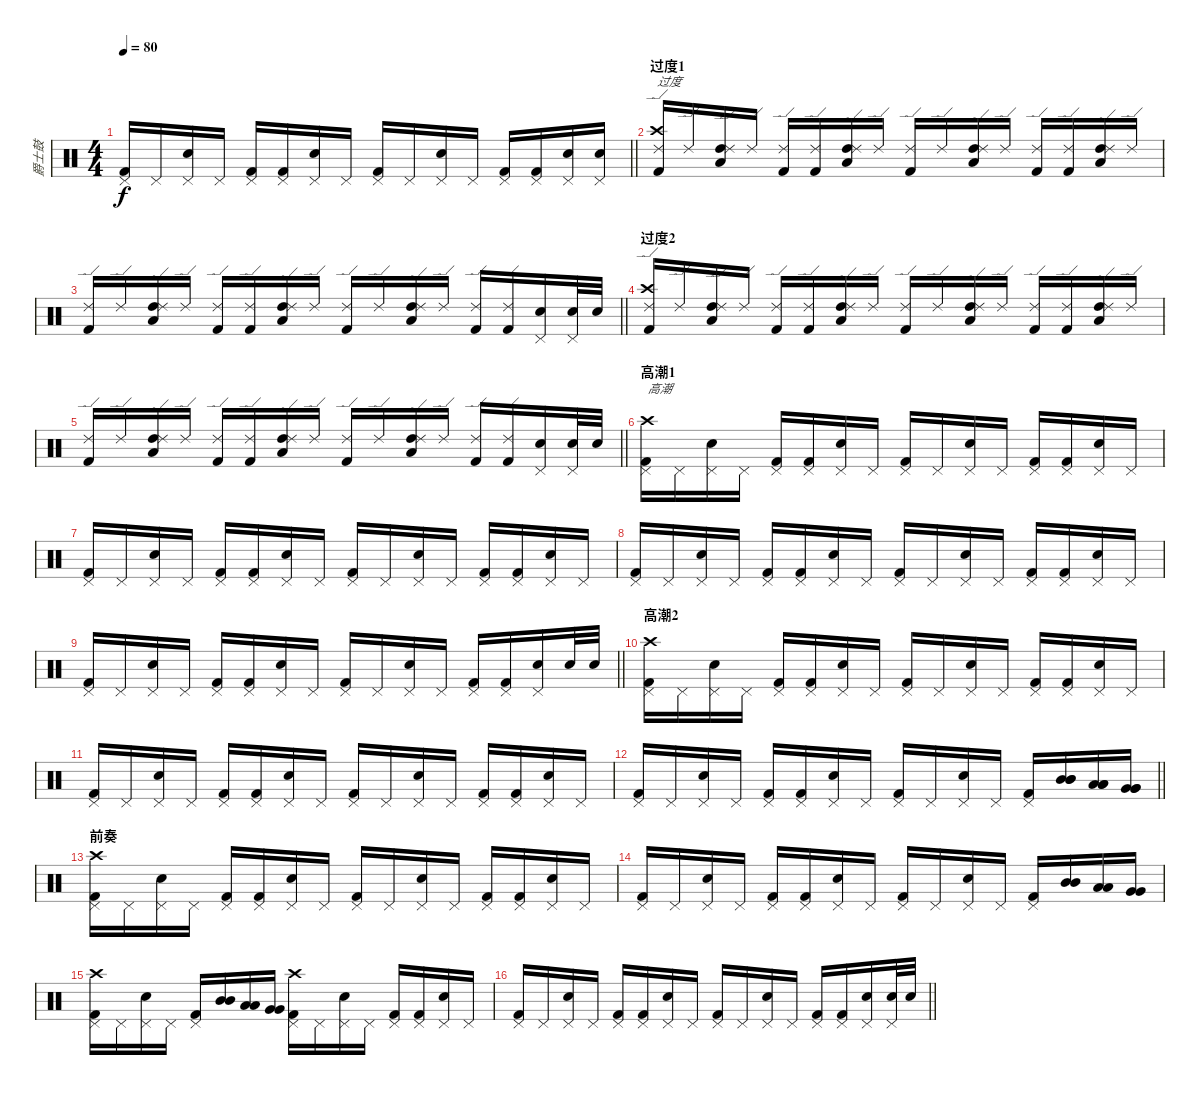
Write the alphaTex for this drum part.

\track ("爵士鼓" "爵士鼓") {instrument percussion}
\staff {score}
\articulation defaults
\ts (4 4)
\tempo 80
\clef neutral
\barLineRight lightlight
\ks c
("Pedal Hi-Hat (hit)" "Kick (hit) 2").16{dy f} "Pedal Hi-Hat (hit)".16 ("Pedal Hi-Hat (hit)" "Snare (hit) 2").16 "Pedal Hi-Hat (hit)".16 ("Pedal Hi-Hat (hit)" "Kick (hit) 2").16 ("Pedal Hi-Hat (hit)" "Kick (hit) 2").16 ("Pedal Hi-Hat (hit)" "Snare (hit) 2").16 "Pedal Hi-Hat (hit)".16 ("Pedal Hi-Hat (hit)" "Kick (hit) 2").16 "Pedal Hi-Hat (hit)".16 ("Pedal Hi-Hat (hit)" "Snare (hit) 2").16 "Pedal Hi-Hat (hit)".16 ("Pedal Hi-Hat (hit)" "Kick (hit) 2").16 ("Pedal Hi-Hat (hit)" "Kick (hit) 2").16 ("Pedal Hi-Hat (hit)" "Snare (hit) 2").16 ("Pedal Hi-Hat (hit)" "Snare (hit) 2").16 |
\section ("" "过度1")
("Crash high (hit)" "Kick (hit) 2" "Ride (edge) 2").16{txt "过度"} "Ride (edge) 2".16 ("Low Tom (hit)" "High Tom (hit)" "Ride (edge) 2").16 "Ride (edge) 2".16 ("Kick (hit) 2" "Ride (edge) 2").16 ("Kick (hit) 2" "Ride (edge) 2").16 ("Low Tom (hit)" "High Tom (hit)" "Ride (edge) 2").16 "Ride (edge) 2".16 ("Kick (hit) 2" "Ride (edge) 2").16 "Ride (edge) 2".16 ("Low Tom (hit)" "High Tom (hit)" "Ride (edge) 2").16 "Ride (edge) 2".16 ("Kick (hit) 2" "Ride (edge) 2").16 ("Kick (hit) 2" "Ride (edge) 2").16 ("Low Tom (hit)" "High Tom (hit)" "Ride (edge) 2").16 "Ride (edge) 2".16 |
\barLineRight lightlight
("Kick (hit) 2" "Ride (edge) 2").16 "Ride (edge) 2".16 ("Low Tom (hit)" "High Tom (hit)" "Ride (edge) 2").16 "Ride (edge) 2".16 ("Kick (hit) 2" "Ride (edge) 2").16 ("Kick (hit) 2" "Ride (edge) 2").16 ("Low Tom (hit)" "High Tom (hit)" "Ride (edge) 2").16 "Ride (edge) 2".16 ("Kick (hit) 2" "Ride (edge) 2").16 "Ride (edge) 2".16 ("Low Tom (hit)" "High Tom (hit)" "Ride (edge) 2").16 "Ride (edge) 2".16 ("Kick (hit) 2" "Ride (edge) 2").16 ("Kick (hit) 2" "Ride (edge) 2").16 ("Pedal Hi-Hat (hit)" "Snare (hit) 2").16 ("Pedal Hi-Hat (hit)" "Snare (hit) 2").32 "Snare (hit) 2".32 |
\section ("" "过度2")
("Crash high (hit)" "Kick (hit) 2" "Ride (edge) 2").16 "Ride (edge) 2".16 ("Low Tom (hit)" "High Tom (hit)" "Ride (edge) 2").16 "Ride (edge) 2".16 ("Kick (hit) 2" "Ride (edge) 2").16 ("Kick (hit) 2" "Ride (edge) 2").16 ("Low Tom (hit)" "High Tom (hit)" "Ride (edge) 2").16 "Ride (edge) 2".16 ("Kick (hit) 2" "Ride (edge) 2").16 "Ride (edge) 2".16 ("Low Tom (hit)" "High Tom (hit)" "Ride (edge) 2").16 "Ride (edge) 2".16 ("Kick (hit) 2" "Ride (edge) 2").16 ("Kick (hit) 2" "Ride (edge) 2").16 ("Low Tom (hit)" "High Tom (hit)" "Ride (edge) 2").16 "Ride (edge) 2".16 |
\barLineRight lightlight
("Kick (hit) 2" "Ride (edge) 2").16 "Ride (edge) 2".16 ("Low Tom (hit)" "High Tom (hit)" "Ride (edge) 2").16 "Ride (edge) 2".16 ("Kick (hit) 2" "Ride (edge) 2").16 ("Kick (hit) 2" "Ride (edge) 2").16 ("Low Tom (hit)" "High Tom (hit)" "Ride (edge) 2").16 "Ride (edge) 2".16 ("Kick (hit) 2" "Ride (edge) 2").16 "Ride (edge) 2".16 ("Low Tom (hit)" "High Tom (hit)" "Ride (edge) 2").16 "Ride (edge) 2".16 ("Kick (hit) 2" "Ride (edge) 2").16 ("Kick (hit) 2" "Ride (edge) 2").16 ("Pedal Hi-Hat (hit)" "Snare (hit) 2").16 ("Pedal Hi-Hat (hit)" "Snare (hit) 2").32 "Snare (hit) 2".32 |
\section ("" "高潮1")
("Pedal Hi-Hat (hit)" "Kick (hit) 2" "Crash high (hit)").16{txt "高潮"} "Pedal Hi-Hat (hit)".16 ("Pedal Hi-Hat (hit)" "Snare (hit) 2").16 "Pedal Hi-Hat (hit)".16 ("Pedal Hi-Hat (hit)" "Kick (hit) 2").16 ("Pedal Hi-Hat (hit)" "Kick (hit) 2").16 ("Pedal Hi-Hat (hit)" "Snare (hit) 2").16 "Pedal Hi-Hat (hit)".16 ("Pedal Hi-Hat (hit)" "Kick (hit) 2").16 "Pedal Hi-Hat (hit)".16 ("Pedal Hi-Hat (hit)" "Snare (hit) 2").16 "Pedal Hi-Hat (hit)".16 ("Pedal Hi-Hat (hit)" "Kick (hit) 2").16 ("Pedal Hi-Hat (hit)" "Kick (hit) 2").16 ("Pedal Hi-Hat (hit)" "Snare (hit) 2").16 "Pedal Hi-Hat (hit)".16 |
("Pedal Hi-Hat (hit)" "Kick (hit) 2").16 "Pedal Hi-Hat (hit)".16 ("Pedal Hi-Hat (hit)" "Snare (hit) 2").16 "Pedal Hi-Hat (hit)".16 ("Pedal Hi-Hat (hit)" "Kick (hit) 2").16 ("Pedal Hi-Hat (hit)" "Kick (hit) 2").16 ("Pedal Hi-Hat (hit)" "Snare (hit) 2").16 "Pedal Hi-Hat (hit)".16 ("Pedal Hi-Hat (hit)" "Kick (hit) 2").16 "Pedal Hi-Hat (hit)".16 ("Pedal Hi-Hat (hit)" "Snare (hit) 2").16 "Pedal Hi-Hat (hit)".16 ("Pedal Hi-Hat (hit)" "Kick (hit) 2").16 ("Pedal Hi-Hat (hit)" "Kick (hit) 2").16 ("Pedal Hi-Hat (hit)" "Snare (hit) 2").16 "Pedal Hi-Hat (hit)".16 |
("Pedal Hi-Hat (hit)" "Kick (hit) 2").16 "Pedal Hi-Hat (hit)".16 ("Pedal Hi-Hat (hit)" "Snare (hit) 2").16 "Pedal Hi-Hat (hit)".16 ("Pedal Hi-Hat (hit)" "Kick (hit) 2").16 ("Pedal Hi-Hat (hit)" "Kick (hit) 2").16 ("Pedal Hi-Hat (hit)" "Snare (hit) 2").16 "Pedal Hi-Hat (hit)".16 ("Pedal Hi-Hat (hit)" "Kick (hit) 2").16 "Pedal Hi-Hat (hit)".16 ("Pedal Hi-Hat (hit)" "Snare (hit) 2").16 "Pedal Hi-Hat (hit)".16 ("Pedal Hi-Hat (hit)" "Kick (hit) 2").16 ("Pedal Hi-Hat (hit)" "Kick (hit) 2").16 ("Pedal Hi-Hat (hit)" "Snare (hit) 2").16 "Pedal Hi-Hat (hit)".16 |
\barLineRight lightlight
("Pedal Hi-Hat (hit)" "Kick (hit) 2").16 "Pedal Hi-Hat (hit)".16 ("Pedal Hi-Hat (hit)" "Snare (hit) 2").16 "Pedal Hi-Hat (hit)".16 ("Pedal Hi-Hat (hit)" "Kick (hit) 2").16 ("Pedal Hi-Hat (hit)" "Kick (hit) 2").16 ("Pedal Hi-Hat (hit)" "Snare (hit) 2").16 "Pedal Hi-Hat (hit)".16 ("Pedal Hi-Hat (hit)" "Kick (hit) 2").16 "Pedal Hi-Hat (hit)".16 ("Pedal Hi-Hat (hit)" "Snare (hit) 2").16 "Pedal Hi-Hat (hit)".16 ("Pedal Hi-Hat (hit)" "Kick (hit) 2").16 ("Pedal Hi-Hat (hit)" "Kick (hit) 2").16 ("Pedal Hi-Hat (hit)" "Snare (hit) 2").16 "Snare (hit) 2".32 "Snare (hit) 2".32 |
\section ("" "高潮2")
("Pedal Hi-Hat (hit)" "Kick (hit) 2" "Crash high (hit)").16 "Pedal Hi-Hat (hit)".16 ("Pedal Hi-Hat (hit)" "Snare (hit) 2").16 "Pedal Hi-Hat (hit)".16 ("Pedal Hi-Hat (hit)" "Kick (hit) 2").16 ("Pedal Hi-Hat (hit)" "Kick (hit) 2").16 ("Pedal Hi-Hat (hit)" "Snare (hit) 2").16 "Pedal Hi-Hat (hit)".16 ("Pedal Hi-Hat (hit)" "Kick (hit) 2").16 "Pedal Hi-Hat (hit)".16 ("Pedal Hi-Hat (hit)" "Snare (hit) 2").16 "Pedal Hi-Hat (hit)".16 ("Pedal Hi-Hat (hit)" "Kick (hit) 2").16 ("Pedal Hi-Hat (hit)" "Kick (hit) 2").16 ("Pedal Hi-Hat (hit)" "Snare (hit) 2").16 "Pedal Hi-Hat (hit)".16 |
("Pedal Hi-Hat (hit)" "Kick (hit) 2").16 "Pedal Hi-Hat (hit)".16 ("Pedal Hi-Hat (hit)" "Snare (hit) 2").16 "Pedal Hi-Hat (hit)".16 ("Pedal Hi-Hat (hit)" "Kick (hit) 2").16 ("Pedal Hi-Hat (hit)" "Kick (hit) 2").16 ("Pedal Hi-Hat (hit)" "Snare (hit) 2").16 "Pedal Hi-Hat (hit)".16 ("Pedal Hi-Hat (hit)" "Kick (hit) 2").16 "Pedal Hi-Hat (hit)".16 ("Pedal Hi-Hat (hit)" "Snare (hit) 2").16 "Pedal Hi-Hat (hit)".16 ("Pedal Hi-Hat (hit)" "Kick (hit) 2").16 ("Pedal Hi-Hat (hit)" "Kick (hit) 2").16 ("Pedal Hi-Hat (hit)" "Snare (hit) 2").16 "Pedal Hi-Hat (hit)".16 |
\barLineRight lightlight
("Pedal Hi-Hat (hit)" "Kick (hit) 2").16 "Pedal Hi-Hat (hit)".16 ("Pedal Hi-Hat (hit)" "Snare (hit) 2").16 "Pedal Hi-Hat (hit)".16 ("Pedal Hi-Hat (hit)" "Kick (hit) 2").16 ("Pedal Hi-Hat (hit)" "Kick (hit) 2").16 ("Pedal Hi-Hat (hit)" "Snare (hit) 2").16 "Pedal Hi-Hat (hit)".16 ("Pedal Hi-Hat (hit)" "Kick (hit) 2").16 "Pedal Hi-Hat (hit)".16 ("Pedal Hi-Hat (hit)" "Snare (hit) 2").16 "Pedal Hi-Hat (hit)".16 ("Pedal Hi-Hat (hit)" "Kick (hit) 2").16 ("Mid Tom (hit)" "Mid Tom (hit)" "Mid Tom (hit)").16 ("Low Tom (hit)" "Low Tom (hit)" "Low Tom (hit)").16 ("Very Low Tom (hit)" "Very Low Tom (hit)" "Very Low Tom (hit)").16 |
\section ("" "前奏")
("Pedal Hi-Hat (hit)" "Kick (hit) 2" "Crash high (hit)").16 "Pedal Hi-Hat (hit)".16 ("Pedal Hi-Hat (hit)" "Snare (hit) 2").16 "Pedal Hi-Hat (hit)".16 ("Pedal Hi-Hat (hit)" "Kick (hit) 2").16 ("Pedal Hi-Hat (hit)" "Kick (hit) 2").16 ("Pedal Hi-Hat (hit)" "Snare (hit) 2").16 "Pedal Hi-Hat (hit)".16 ("Pedal Hi-Hat (hit)" "Kick (hit) 2").16 "Pedal Hi-Hat (hit)".16 ("Pedal Hi-Hat (hit)" "Snare (hit) 2").16 "Pedal Hi-Hat (hit)".16 ("Pedal Hi-Hat (hit)" "Kick (hit) 2").16 ("Pedal Hi-Hat (hit)" "Kick (hit) 2").16 ("Pedal Hi-Hat (hit)" "Snare (hit) 2").16 "Pedal Hi-Hat (hit)".16 |
("Pedal Hi-Hat (hit)" "Kick (hit) 2").16 "Pedal Hi-Hat (hit)".16 ("Pedal Hi-Hat (hit)" "Snare (hit) 2").16 "Pedal Hi-Hat (hit)".16 ("Pedal Hi-Hat (hit)" "Kick (hit) 2").16 ("Pedal Hi-Hat (hit)" "Kick (hit) 2").16 ("Pedal Hi-Hat (hit)" "Snare (hit) 2").16 "Pedal Hi-Hat (hit)".16 ("Pedal Hi-Hat (hit)" "Kick (hit) 2").16 "Pedal Hi-Hat (hit)".16 ("Pedal Hi-Hat (hit)" "Snare (hit) 2").16 "Pedal Hi-Hat (hit)".16 ("Pedal Hi-Hat (hit)" "Kick (hit) 2").16 ("Mid Tom (hit)" "Mid Tom (hit)").16 ("Low Tom (hit)" "Low Tom (hit)").16 ("Very Low Tom (hit)" "Very Low Tom (hit)").16 |
("Pedal Hi-Hat (hit)" "Kick (hit) 2" "Crash high (hit)").16 "Pedal Hi-Hat (hit)".16 ("Pedal Hi-Hat (hit)" "Snare (hit) 2").16 "Pedal Hi-Hat (hit)".16 ("Pedal Hi-Hat (hit)" "Kick (hit) 2").16 ("Mid Tom (hit)" "Mid Tom (hit)").16 ("Low Tom (hit)" "Low Tom (hit)").16 ("Very Low Tom (hit)" "Very Low Tom (hit)").16 ("Pedal Hi-Hat (hit)" "Kick (hit) 2" "Crash high (hit)").16 "Pedal Hi-Hat (hit)".16 ("Pedal Hi-Hat (hit)" "Snare (hit) 2").16 "Pedal Hi-Hat (hit)".16 ("Pedal Hi-Hat (hit)" "Kick (hit) 2").16 ("Pedal Hi-Hat (hit)" "Kick (hit) 2").16 ("Pedal Hi-Hat (hit)" "Snare (hit) 2").16 "Pedal Hi-Hat (hit)".16 |
\barLineRight lightlight
("Pedal Hi-Hat (hit)" "Kick (hit) 2").16 "Pedal Hi-Hat (hit)".16 ("Pedal Hi-Hat (hit)" "Snare (hit) 2").16 "Pedal Hi-Hat (hit)".16 ("Pedal Hi-Hat (hit)" "Kick (hit) 2").16 ("Pedal Hi-Hat (hit)" "Kick (hit) 2").16 ("Pedal Hi-Hat (hit)" "Snare (hit) 2").16 "Pedal Hi-Hat (hit)".16 ("Pedal Hi-Hat (hit)" "Kick (hit) 2").16 "Pedal Hi-Hat (hit)".16 ("Pedal Hi-Hat (hit)" "Snare (hit) 2").16 "Pedal Hi-Hat (hit)".16 ("Pedal Hi-Hat (hit)" "Kick (hit) 2").16 ("Pedal Hi-Hat (hit)" "Kick (hit) 2").16 ("Pedal Hi-Hat (hit)" "Snare (hit) 2").16 ("Pedal Hi-Hat (hit)" "Snare (hit) 2").32 "Snare (hit) 2".32
